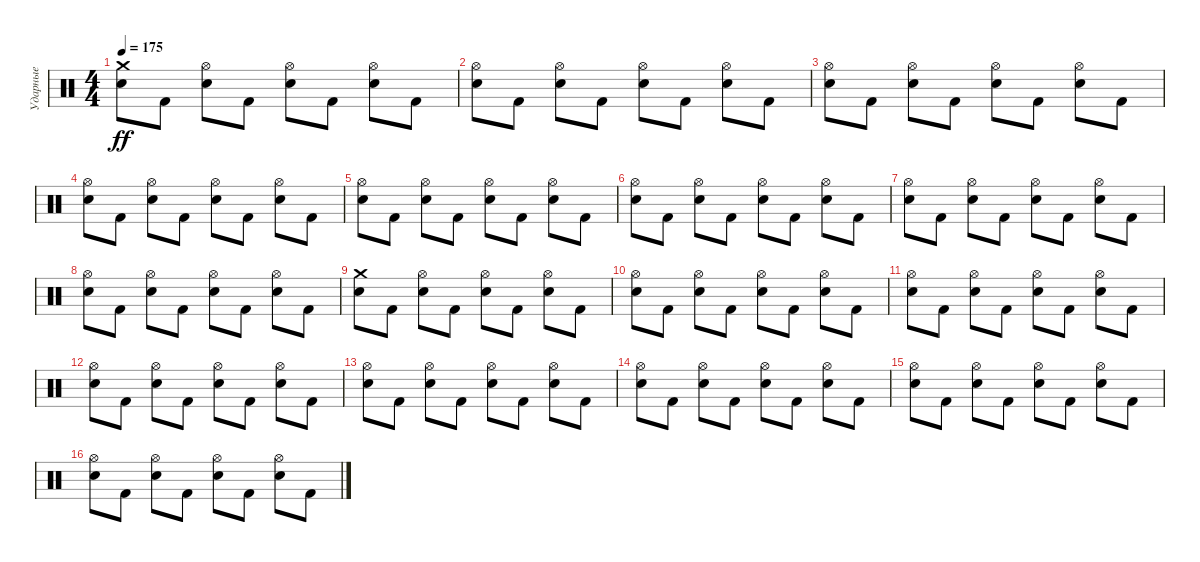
\track ("Ударные" "Ударные") {instrument percussion}
\staff {score}
\articulation defaults
\ts (4 4)
\tempo 175
\clef neutral
\ks c
("Electric Snare (hit)" "Crash medium (hit)").8{dy ff} "Kick (hit) 2".8 ("Electric Snare (hit)" "Hi-Hat (open)").8 "Kick (hit) 2".8 ("Electric Snare (hit)" "Hi-Hat (open)").8 "Kick (hit) 2".8 ("Electric Snare (hit)" "Hi-Hat (open)").8 "Kick (hit) 2".8 |
("Electric Snare (hit)" "Hi-Hat (open)").8 "Kick (hit) 2".8 ("Electric Snare (hit)" "Hi-Hat (open)").8 "Kick (hit) 2".8 ("Electric Snare (hit)" "Hi-Hat (open)").8 "Kick (hit) 2".8 ("Electric Snare (hit)" "Hi-Hat (open)").8 "Kick (hit) 2".8 |
("Electric Snare (hit)" "Hi-Hat (open)").8 "Kick (hit) 2".8 ("Electric Snare (hit)" "Hi-Hat (open)").8 "Kick (hit) 2".8 ("Electric Snare (hit)" "Hi-Hat (open)").8 "Kick (hit) 2".8 ("Electric Snare (hit)" "Hi-Hat (open)").8 "Kick (hit) 2".8 |
("Electric Snare (hit)" "Hi-Hat (open)").8 "Kick (hit) 2".8 ("Electric Snare (hit)" "Hi-Hat (open)").8 "Kick (hit) 2".8 ("Electric Snare (hit)" "Hi-Hat (open)").8 "Kick (hit) 2".8 ("Electric Snare (hit)" "Hi-Hat (open)").8 "Kick (hit) 2".8 |
("Electric Snare (hit)" "Hi-Hat (open)").8 "Kick (hit) 2".8 ("Electric Snare (hit)" "Hi-Hat (open)").8 "Kick (hit) 2".8 ("Electric Snare (hit)" "Hi-Hat (open)").8 "Kick (hit) 2".8 ("Electric Snare (hit)" "Hi-Hat (open)").8 "Kick (hit) 2".8 |
("Electric Snare (hit)" "Hi-Hat (open)").8 "Kick (hit) 2".8 ("Electric Snare (hit)" "Hi-Hat (open)").8 "Kick (hit) 2".8 ("Electric Snare (hit)" "Hi-Hat (open)").8 "Kick (hit) 2".8 ("Electric Snare (hit)" "Hi-Hat (open)").8 "Kick (hit) 2".8 |
("Electric Snare (hit)" "Hi-Hat (open)").8 "Kick (hit) 2".8 ("Electric Snare (hit)" "Hi-Hat (open)").8 "Kick (hit) 2".8 ("Electric Snare (hit)" "Hi-Hat (open)").8 "Kick (hit) 2".8 ("Electric Snare (hit)" "Hi-Hat (open)").8 "Kick (hit) 2".8 |
("Electric Snare (hit)" "Hi-Hat (open)").8 "Kick (hit) 2".8 ("Electric Snare (hit)" "Hi-Hat (open)").8 "Kick (hit) 2".8 ("Electric Snare (hit)" "Hi-Hat (open)").8 "Kick (hit) 2".8 ("Electric Snare (hit)" "Hi-Hat (open)").8 "Kick (hit) 2".8 |
("Electric Snare (hit)" "Crash medium (hit)").8 "Kick (hit) 2".8 ("Electric Snare (hit)" "Hi-Hat (open)").8 "Kick (hit) 2".8 ("Electric Snare (hit)" "Hi-Hat (open)").8 "Kick (hit) 2".8 ("Electric Snare (hit)" "Hi-Hat (open)").8 "Kick (hit) 2".8 |
("Electric Snare (hit)" "Hi-Hat (open)").8 "Kick (hit) 2".8 ("Electric Snare (hit)" "Hi-Hat (open)").8 "Kick (hit) 2".8 ("Electric Snare (hit)" "Hi-Hat (open)").8 "Kick (hit) 2".8 ("Electric Snare (hit)" "Hi-Hat (open)").8 "Kick (hit) 2".8 |
("Electric Snare (hit)" "Hi-Hat (open)").8 "Kick (hit) 2".8 ("Electric Snare (hit)" "Hi-Hat (open)").8 "Kick (hit) 2".8 ("Electric Snare (hit)" "Hi-Hat (open)").8 "Kick (hit) 2".8 ("Electric Snare (hit)" "Hi-Hat (open)").8 "Kick (hit) 2".8 |
("Electric Snare (hit)" "Hi-Hat (open)").8 "Kick (hit) 2".8 ("Electric Snare (hit)" "Hi-Hat (open)").8 "Kick (hit) 2".8 ("Electric Snare (hit)" "Hi-Hat (open)").8 "Kick (hit) 2".8 ("Electric Snare (hit)" "Hi-Hat (open)").8 "Kick (hit) 2".8 |
("Electric Snare (hit)" "Hi-Hat (open)").8 "Kick (hit) 2".8 ("Electric Snare (hit)" "Hi-Hat (open)").8 "Kick (hit) 2".8 ("Electric Snare (hit)" "Hi-Hat (open)").8 "Kick (hit) 2".8 ("Electric Snare (hit)" "Hi-Hat (open)").8 "Kick (hit) 2".8 |
("Electric Snare (hit)" "Hi-Hat (open)").8 "Kick (hit) 2".8 ("Electric Snare (hit)" "Hi-Hat (open)").8 "Kick (hit) 2".8 ("Electric Snare (hit)" "Hi-Hat (open)").8 "Kick (hit) 2".8 ("Electric Snare (hit)" "Hi-Hat (open)").8 "Kick (hit) 2".8 |
("Electric Snare (hit)" "Hi-Hat (open)").8 "Kick (hit) 2".8 ("Electric Snare (hit)" "Hi-Hat (open)").8 "Kick (hit) 2".8 ("Electric Snare (hit)" "Hi-Hat (open)").8 "Kick (hit) 2".8 ("Electric Snare (hit)" "Hi-Hat (open)").8 "Kick (hit) 2".8 |
("Electric Snare (hit)" "Hi-Hat (open)").8 "Kick (hit) 2".8 ("Electric Snare (hit)" "Hi-Hat (open)").8 "Kick (hit) 2".8 ("Electric Snare (hit)" "Hi-Hat (open)").8 "Kick (hit) 2".8 ("Electric Snare (hit)" "Hi-Hat (open)").8 "Kick (hit) 2".8
